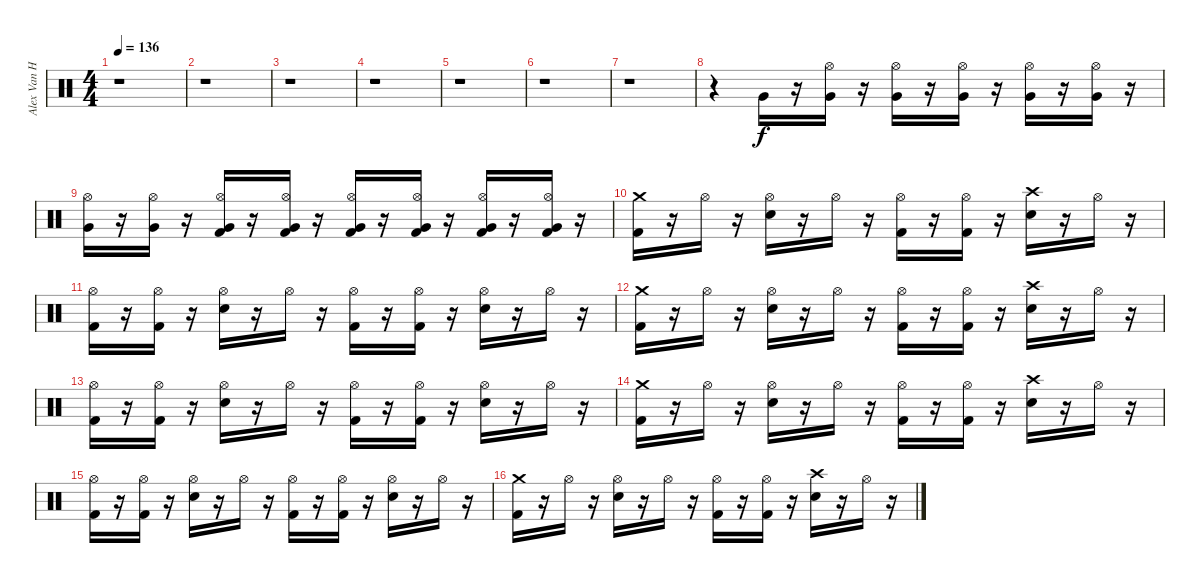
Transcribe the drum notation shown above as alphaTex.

\track ("Alex Van Halen (Drums)" "Alex Van H") {instrument percussion}
\staff {score}
\articulation defaults
\ts (4 4)
\tempo 136
\clef neutral
\ks c
r.1{dy f} |
r.1 |
r.1 |
r.1 |
r.1 |
r.1 |
r.1 |
r.4 "Very Low Tom (hit)".16 r.16 ("Hi-Hat (open)" "Very Low Tom (hit)").16 r.16 ("Hi-Hat (open)" "Very Low Tom (hit)").16 r.16 ("Hi-Hat (open)" "Very Low Tom (hit)").16 r.16 ("Hi-Hat (open)" "Very Low Tom (hit)").16 r.16 ("Very Low Tom (hit)" "Hi-Hat (open)").16 r.16 |
("Hi-Hat (open)" "Very Low Tom (hit)").16 r.16 ("Hi-Hat (open)" "Very Low Tom (hit)").16 r.16 ("Kick (hit) 2" "Hi-Hat (open)" "Very Low Tom (hit)").16 r.16 ("Kick (hit) 2" "Hi-Hat (open)" "Very Low Tom (hit)").16 r.16 ("Kick (hit) 2" "Hi-Hat (open)" "Very Low Tom (hit)").16 r.16 ("Kick (hit) 2" "Hi-Hat (open)" "Very Low Tom (hit)").16 r.16 ("Very Low Tom (hit)" "Hi-Hat (open)" "Kick (hit) 2").16 r.16 ("Very Low Tom (hit)" "Hi-Hat (open)" "Kick (hit) 2").16 r.16 |
("Crash medium (hit)" "Kick (hit) 2").16 r.16 "Hi-Hat (open)".16 r.16 ("Hi-Hat (open)" "Snare (hit) 2").16 r.16 "Hi-Hat (open)".16 r.16 ("Hi-Hat (open)" "Kick (hit) 2").16 r.16 ("Hi-Hat (open)" "Kick (hit) 2").16 r.16 ("Crash high (hit)" "Snare (hit) 2").16 r.16 "Hi-Hat (open)".16 r.16 |
("Hi-Hat (open)" "Kick (hit) 2").16 r.16 ("Hi-Hat (open)" "Kick (hit) 2").16 r.16 ("Hi-Hat (open)" "Snare (hit) 2").16 r.16 "Hi-Hat (open)".16 r.16 ("Hi-Hat (open)" "Kick (hit) 2").16 r.16 ("Hi-Hat (open)" "Kick (hit) 2").16 r.16 ("Hi-Hat (open)" "Snare (hit) 2").16 r.16 "Hi-Hat (open)".16 r.16 |
("Crash medium (hit)" "Kick (hit) 2").16 r.16 "Hi-Hat (open)".16 r.16 ("Hi-Hat (open)" "Snare (hit) 2").16 r.16 "Hi-Hat (open)".16 r.16 ("Hi-Hat (open)" "Kick (hit) 2").16 r.16 ("Hi-Hat (open)" "Kick (hit) 2").16 r.16 ("Crash high (hit)" "Snare (hit) 2").16 r.16 "Hi-Hat (open)".16 r.16 |
("Hi-Hat (open)" "Kick (hit) 2").16 r.16 ("Hi-Hat (open)" "Kick (hit) 2").16 r.16 ("Hi-Hat (open)" "Snare (hit) 2").16 r.16 "Hi-Hat (open)".16 r.16 ("Hi-Hat (open)" "Kick (hit) 2").16 r.16 ("Hi-Hat (open)" "Kick (hit) 2").16 r.16 ("Hi-Hat (open)" "Snare (hit) 2").16 r.16 "Hi-Hat (open)".16 r.16 |
("Crash medium (hit)" "Kick (hit) 2").16 r.16 "Hi-Hat (open)".16 r.16 ("Hi-Hat (open)" "Snare (hit) 2").16 r.16 "Hi-Hat (open)".16 r.16 ("Hi-Hat (open)" "Kick (hit) 2").16 r.16 ("Hi-Hat (open)" "Kick (hit) 2").16 r.16 ("Crash high (hit)" "Snare (hit) 2").16 r.16 "Hi-Hat (open)".16 r.16 |
("Hi-Hat (open)" "Kick (hit) 2").16 r.16 ("Hi-Hat (open)" "Kick (hit) 2").16 r.16 ("Hi-Hat (open)" "Snare (hit) 2").16 r.16 "Hi-Hat (open)".16 r.16 ("Hi-Hat (open)" "Kick (hit) 2").16 r.16 ("Hi-Hat (open)" "Kick (hit) 2").16 r.16 ("Hi-Hat (open)" "Snare (hit) 2").16 r.16 "Hi-Hat (open)".16 r.16 |
("Crash medium (hit)" "Kick (hit) 2").16 r.16 "Hi-Hat (open)".16 r.16 ("Hi-Hat (open)" "Snare (hit) 2").16 r.16 "Hi-Hat (open)".16 r.16 ("Hi-Hat (open)" "Kick (hit) 2").16 r.16 ("Hi-Hat (open)" "Kick (hit) 2").16 r.16 ("Crash high (hit)" "Snare (hit) 2").16 r.16 "Hi-Hat (open)".16 r.16
